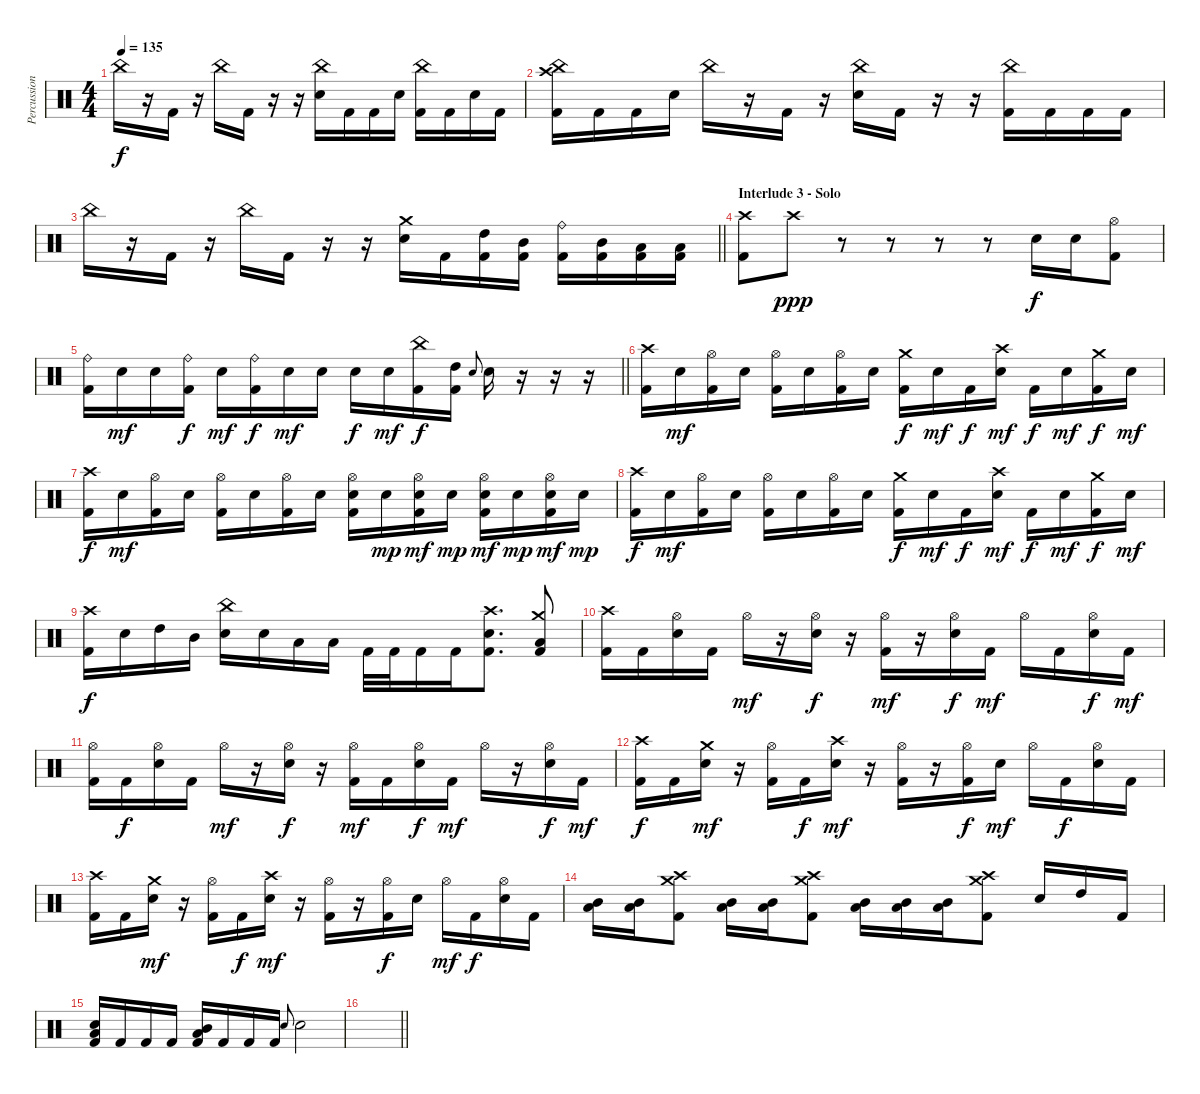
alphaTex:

\track ("Percussion" "Percussion") {instrument percussion}
\staff {score}
\articulation defaults
\ts (4 4)
\tempo 135
\clef neutral
\ks c "China (hit)".16{dy f}
r.16 "Kick (hit) 2".16 r.16 "China (hit)".16 "Kick (hit) 2".16 r.16 r.16 ("China (hit)" "Electric Snare (hit)").16 "Kick (hit) 2".16 "Kick (hit) 2".16 "Electric Snare (hit)".16 ("China (hit)" "Kick (hit) 2").16 "Kick (hit) 2".16 "Electric Snare (hit)".16 "Kick (hit) 2".16 |
("Crash high (hit)" "China (hit)" "Kick (hit) 2").16 "Kick (hit) 2".16 "Kick (hit) 2".16 "Electric Snare (hit)".16 "China (hit)".16 r.16 "Kick (hit) 2".16 r.16 ("China (hit)" "Electric Snare (hit)").16 "Kick (hit) 2".16 r.16 r.16 ("China (hit)" "Kick (hit) 2").16 "Kick (hit) 2".16 "Kick (hit) 2".16 "Kick (hit) 2".16 |
\barLineRight lightlight "China (hit)".16
r.16 "Kick (hit) 2".16 r.16 "China (hit)".16 "Kick (hit) 2".16 r.16 r.16 ("Crash medium (hit)" "Electric Snare (hit)").16 "Kick (hit) 2".16 ("High Tom (hit)" "Kick (hit) 2").16 ("Mid Tom (hit)" "Kick (hit) 2").16 ("Ride (bell)" "Kick (hit) 2").16 ("Mid Tom (hit)" "Kick (hit) 2").16 ("Low Tom (hit)" "Kick (hit) 2").16 ("Low Tom (hit)" "Kick (hit) 2").16 |
\section ("" "Interlude 3 - Solo")
("Crash high (hit)" "Kick (hit) 2").8 "Crash high (hit)".8{dy ppp} r.8 r.8 r.8 r.8 "Electric Snare (hit)".16{dy f} "Electric Snare (hit)".16 ("Hi-Hat (open)" "Kick (hit) 2").8 |
\barLineRight lightlight
("Ride (bell)" "Kick (hit) 2").16 "Electric Snare (hit)".16{dy mf} "Electric Snare (hit)".16 ("Ride (bell)" "Kick (hit) 2").16{dy f} "Electric Snare (hit)".16{dy mf} ("Ride (bell)" "Kick (hit) 2").16{dy f} "Electric Snare (hit)".16{dy mf} "Electric Snare (hit)".16 "Electric Snare (hit)".16{dy f} "Electric Snare (hit)".16{dy mf} ("China (hit)" "Kick (hit) 2").16{dy f} ("High Tom (hit)" "Kick (hit) 2").16 "Electric Snare (hit)".8{gr onbeat} "Electric Snare (hit)".16 r.16 r.16 r.16 |
("Crash high (hit)" "Kick (hit) 2").16 "Electric Snare (hit)".16{dy mf} ("Hi-Hat (open)" "Kick (hit) 2").16 "Electric Snare (hit)".16 ("Hi-Hat (open)" "Kick (hit) 2").16 "Electric Snare (hit)".16 ("Hi-Hat (open)" "Kick (hit) 2").16 "Electric Snare (hit)".16 ("Crash medium (hit)" "Kick (hit) 2").16{dy f} "Electric Snare (hit)".16{dy mf} "Kick (hit) 2".16{dy f} ("Crash high (hit)" "Electric Snare (hit)").16{dy mf} "Kick (hit) 2".16{dy f} "Electric Snare (hit)".16{dy mf} ("Crash medium (hit)" "Kick (hit) 2").16{dy f} "Electric Snare (hit)".16{dy mf} |
("Crash high (hit)" "Kick (hit) 2").16{dy f} "Electric Snare (hit)".16{dy mf} ("Hi-Hat (open)" "Kick (hit) 2").16 "Electric Snare (hit)".16 ("Hi-Hat (open)" "Kick (hit) 2").16 "Electric Snare (hit)".16 ("Hi-Hat (open)" "Kick (hit) 2").16 "Electric Snare (hit)".16 ("Hi-Hat (open)" "Electric Snare (hit)" "Kick (hit) 2").16 "Electric Snare (hit)".16{dy mp} ("Hi-Hat (open)" "Electric Snare (hit)" "Kick (hit) 2").16{dy mf} "Electric Snare (hit)".16{dy mp} ("Hi-Hat (open)" "Electric Snare (hit)" "Kick (hit) 2").16{dy mf} "Electric Snare (hit)".16{dy mp} ("Hi-Hat (open)" "Electric Snare (hit)" "Kick (hit) 2").16{dy mf} "Electric Snare (hit)".16{dy mp} |
("Crash high (hit)" "Kick (hit) 2").16{dy f} "Electric Snare (hit)".16{dy mf} ("Hi-Hat (open)" "Kick (hit) 2").16 "Electric Snare (hit)".16 ("Hi-Hat (open)" "Kick (hit) 2").16 "Electric Snare (hit)".16 ("Hi-Hat (open)" "Kick (hit) 2").16 "Electric Snare (hit)".16 ("Crash medium (hit)" "Kick (hit) 2").16{dy f} "Electric Snare (hit)".16{dy mf} "Kick (hit) 2".16{dy f} ("Crash high (hit)" "Electric Snare (hit)").16{dy mf} "Kick (hit) 2".16{dy f} "Electric Snare (hit)".16{dy mf} ("Crash medium (hit)" "Kick (hit) 2").16{dy f} "Electric Snare (hit)".16{dy mf} |
("Crash high (hit)" "Kick (hit) 2").16{dy f} "Electric Snare (hit)".16 "High Tom (hit)".16 "Mid Tom (hit)".16 ("China (hit)" "Electric Snare (hit)").16 "Electric Snare (hit)".16 "Low Tom (hit)".16 "Low Tom (hit)".16 "Kick (hit) 2".32 "Kick (hit) 2".32 "Kick (hit) 2".16 "Kick (hit) 2".16 ("Crash high (hit)" "Electric Snare (hit)" "Kick (hit) 2").8{d} ("Crash medium (hit)" "Low Tom (hit)" "Kick (hit) 2").8 |
("Crash high (hit)" "Kick (hit) 2").16 "Kick (hit) 2".16 ("Hi-Hat (open)" "Electric Snare (hit)").16 "Kick (hit) 2".16 "Hi-Hat (open)".16{dy mf} r.16 ("Hi-Hat (open)" "Electric Snare (hit)").16{dy f} r.16 ("Hi-Hat (open)" "Kick (hit) 2").16{dy mf} r.16 ("Hi-Hat (open)" "Electric Snare (hit)").16{dy f} "Kick (hit) 2".16{dy mf} "Hi-Hat (open)".16 "Kick (hit) 2".16 ("Hi-Hat (open)" "Electric Snare (hit)").16{dy f} "Kick (hit) 2".16{dy mf} |
("Hi-Hat (open)" "Kick (hit) 2").16 "Kick (hit) 2".16{dy f} ("Hi-Hat (open)" "Electric Snare (hit)").16 "Kick (hit) 2".16 "Hi-Hat (open)".16{dy mf} r.16 ("Hi-Hat (open)" "Electric Snare (hit)").16{dy f} r.16 ("Hi-Hat (open)" "Kick (hit) 2").16{dy mf} "Kick (hit) 2".16 ("Hi-Hat (open)" "Electric Snare (hit)").16{dy f} "Kick (hit) 2".16{dy mf} "Hi-Hat (open)".16 r.16 ("Hi-Hat (open)" "Electric Snare (hit)").16{dy f} "Kick (hit) 2".16{dy mf} |
("Crash high (hit)" "Kick (hit) 2").16{dy f} "Kick (hit) 2".16 ("Crash medium (hit)" "Electric Snare (hit)").16{dy mf} r.16 ("Hi-Hat (open)" "Kick (hit) 2").16 "Kick (hit) 2".16{dy f} ("Crash high (hit)" "Electric Snare (hit)").16{dy mf} r.16 ("Hi-Hat (open)" "Kick (hit) 2").16 r.16 ("Hi-Hat (open)" "Kick (hit) 2").16{dy f} "Electric Snare (hit)".16{dy mf} "Hi-Hat (open)".16 "Kick (hit) 2".16{dy f} ("Hi-Hat (open)" "Electric Snare (hit)").16 "Kick (hit) 2".16 |
("Crash high (hit)" "Kick (hit) 2").16 "Kick (hit) 2".16 ("Crash medium (hit)" "Electric Snare (hit)").16{dy mf} r.16 ("Hi-Hat (open)" "Kick (hit) 2").16 "Kick (hit) 2".16{dy f} ("Crash high (hit)" "Electric Snare (hit)").16{dy mf} r.16 ("Hi-Hat (open)" "Kick (hit) 2").16 r.16 ("Hi-Hat (open)" "Kick (hit) 2").16{dy f} "Electric Snare (hit)".16 "Hi-Hat (open)".16{dy mf} "Kick (hit) 2".16{dy f} ("Hi-Hat (open)" "Electric Snare (hit)").16 "Kick (hit) 2".16 |
("Mid Tom (hit)" "Low Tom (hit)").16 ("Mid Tom (hit)" "Low Tom (hit)").16 ("Crash high (hit)" "Crash medium (hit)" "Kick (hit) 2").8 ("Mid Tom (hit)" "Low Tom (hit)").16 ("Mid Tom (hit)" "Low Tom (hit)").16 ("Crash high (hit)" "Crash medium (hit)" "Kick (hit) 2").8 ("Mid Tom (hit)" "Low Tom (hit)").16 ("Mid Tom (hit)" "Low Tom (hit)").16 ("Mid Tom (hit)" "Low Tom (hit)").16 ("Crash high (hit)" "Crash medium (hit)" "Kick (hit) 2").8 "Electric Snare (hit)".16 "High Tom (hit)".16 "Kick (hit) 2".16 |
("Low Tom (hit)" "Electric Snare (hit)" "Kick (hit) 2").16 "Kick (hit) 2".16 "Kick (hit) 2".16 "Kick (hit) 2".16 ("Low Tom (hit)" "Mid Tom (hit)" "Kick (hit) 2").16 "Kick (hit) 2".16 "Kick (hit) 2".16 "Kick (hit) 2".16 "Electric Snare (hit)".8{gr onbeat} "Electric Snare (hit)".2 |
\barLineRight lightlight
